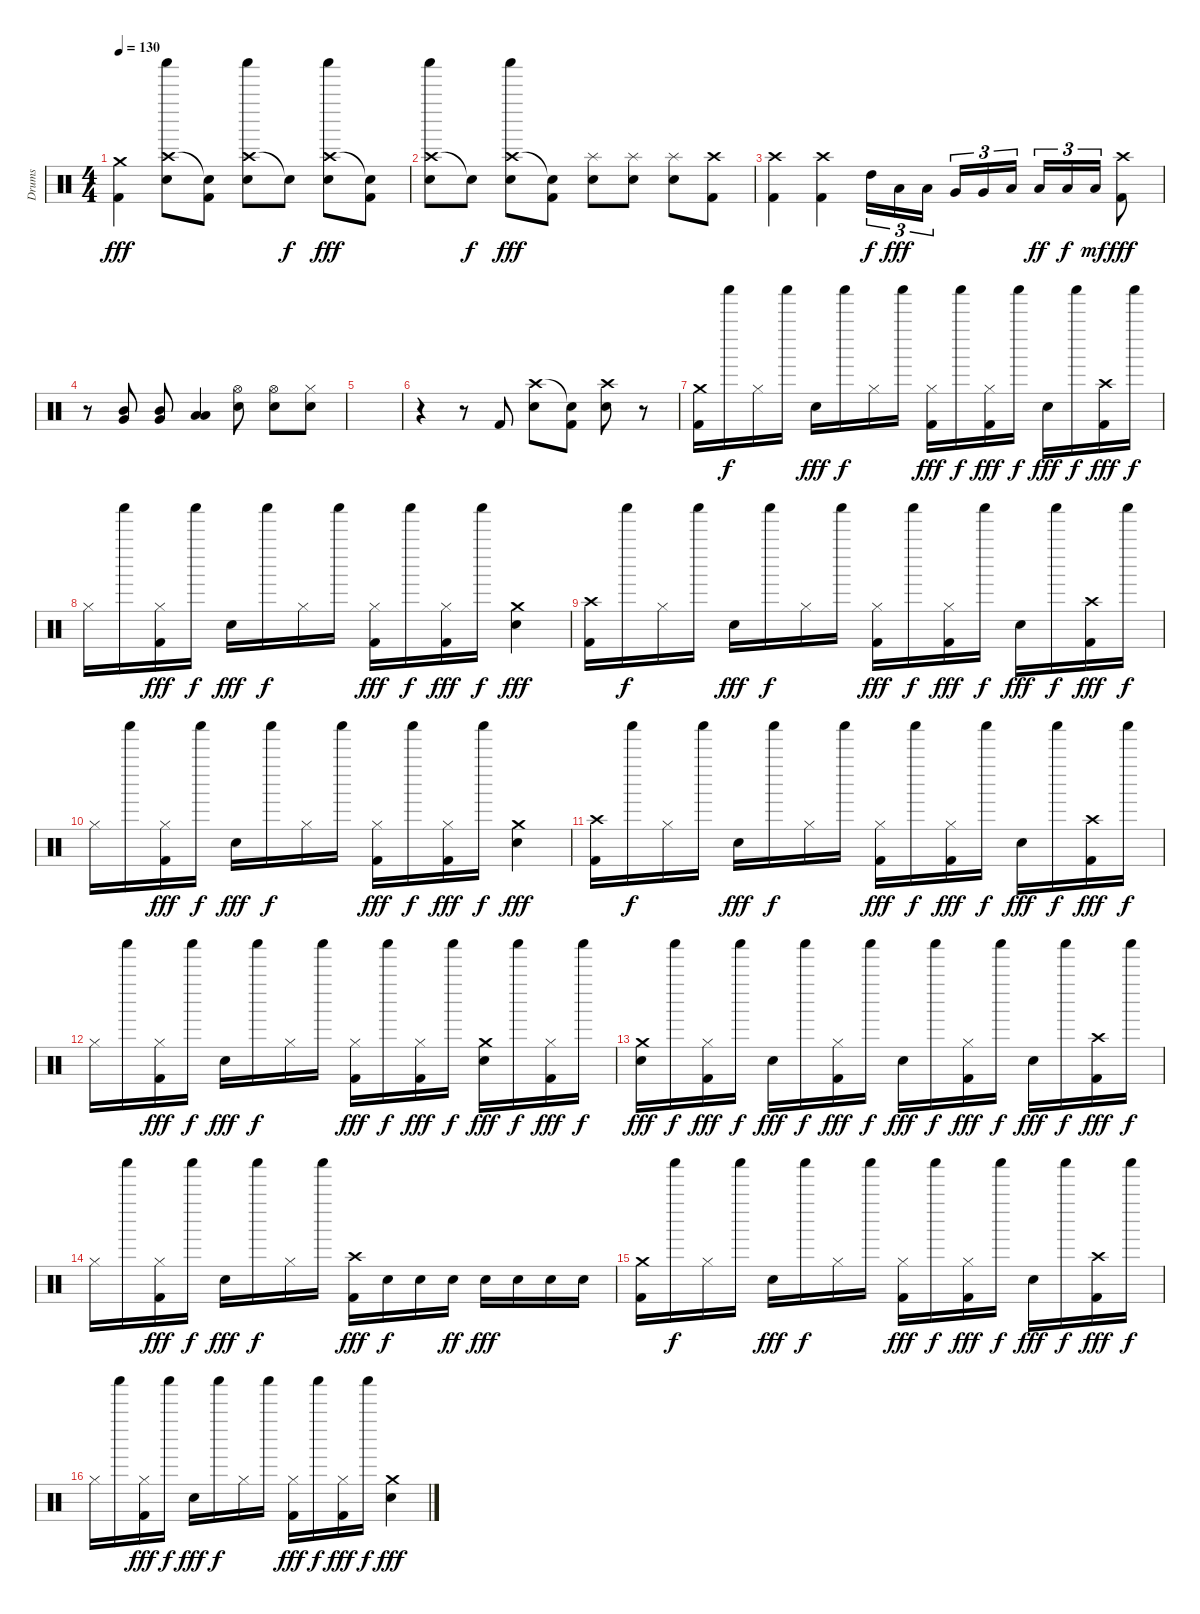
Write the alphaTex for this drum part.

\track ("Drums" "Drums") {instrument percussion}
\staff {score}
\articulation defaults
\ts (4 4)
\tempo 130
\clef neutral
\ks c
("Crash medium (hit)" "Kick (hit) 2").4{dy fff} ("Crash high (hit)" "Shaker (hit)" "Snare (hit) 2").8 ("Snare (hit)"{t} "Kick (hit) 2").8 ("Crash high (hit)" "Shaker (hit)" "Snare (hit) 2").8 "Snare (hit)"{t}.8{dy f} ("Crash high (hit)" "Shaker (hit)" "Snare (hit) 2").8{dy fff} ("Snare (hit)"{t} "Kick (hit) 2").8 |
("Crash high (hit)" "Shaker (hit)" "Snare (hit) 2").8 "Snare (hit)"{t}.8{dy f} ("Crash high (hit)" "Shaker (hit)" "Snare (hit) 2").8{dy fff} ("Snare (hit)"{t} "Kick (hit) 2").8 ("Splash (hit)" "Snare (hit) 2").8 ("Splash (hit)" "Snare (hit) 2").8 ("Splash (hit)" "Snare (hit) 2").8 ("Crash high (hit)" "Kick (hit) 2").8 |
("Crash high (hit)" "Kick (hit) 2").4 ("Crash high (hit)" "Kick (hit) 2").4 "High Tom (hit)".16{tu (3 2) dy f} "Low Tom (hit)".16{tu (3 2) dy fff} "Low Tom (hit)".16{tu (3 2) beam splitsecondary} "Very Low Tom (hit)".16{tu (3 2)} "Very Low Tom (hit)".16{tu (3 2)} "Low Floor Tom (hit)".16{tu (3 2)} "Low Floor Tom (hit)".16{tu (3 2) dy ff} "Low Floor Tom (hit)".16{tu (3 2) dy f} "Low Floor Tom (hit)".16{tu (3 2) dy mf} ("Crash high (hit)" "Kick (hit) 2").8{dy fff} |
r.8 ("Mid Tom (hit)" "Very Low Tom (hit)").8 ("Mid Tom (hit)" "Very Low Tom (hit)").8 ("Low Tom (hit)" "Low Floor Tom (hit)").4 ("Hi-Hat (open)" "Snare (hit) 2").8 ("Hi-Hat (open)" "Snare (hit) 2").8 ("Hi-Hat (closed)" "Snare (hit) 2").8 |
|
r.4 r.8 "Kick (hit) 2".8 ("Crash high (hit)" "Snare (hit) 2").8 ("Snare (hit)"{t} "Kick (hit) 2").8 ("Crash high (hit)" "Snare (hit) 2").8 r.8 |
("Crash medium (hit)" "Kick (hit) 2").16 "Shaker (hit)".16{dy f} "Hi-Hat (closed)".16 "Shaker (hit)".16 "Snare (hit) 2".16{dy fff} "Shaker (hit)".16{dy f} "Hi-Hat (closed)".16 "Shaker (hit)".16 ("Hi-Hat (closed)" "Kick (hit) 2").16{dy fff} "Shaker (hit)".16{dy f} ("Hi-Hat (closed)" "Kick (hit) 2").16{dy fff} "Shaker (hit)".16{dy f} "Snare (hit) 2".16{dy fff} "Shaker (hit)".16{dy f} ("Crash high (hit)" "Kick (hit) 2").16{dy fff} "Shaker (hit)".16{dy f} |
"Hi-Hat (closed)".16 "Shaker (hit)".16 ("Hi-Hat (closed)" "Kick (hit) 2").16{dy fff} "Shaker (hit)".16{dy f} "Snare (hit) 2".16{dy fff} "Shaker (hit)".16{dy f} "Hi-Hat (closed)".16 "Shaker (hit)".16 ("Hi-Hat (closed)" "Kick (hit) 2").16{dy fff} "Shaker (hit)".16{dy f} ("Hi-Hat (closed)" "Kick (hit) 2").16{dy fff} "Shaker (hit)".16{dy f} ("Crash medium (hit)" "Snare (hit) 2").4{dy fff} |
("Crash high (hit)" "Kick (hit) 2").16 "Shaker (hit)".16{dy f} "Hi-Hat (closed)".16 "Shaker (hit)".16 "Snare (hit) 2".16{dy fff} "Shaker (hit)".16{dy f} "Hi-Hat (closed)".16 "Shaker (hit)".16 ("Hi-Hat (closed)" "Kick (hit) 2").16{dy fff} "Shaker (hit)".16{dy f} ("Hi-Hat (closed)" "Kick (hit) 2").16{dy fff} "Shaker (hit)".16{dy f} "Snare (hit) 2".16{dy fff} "Shaker (hit)".16{dy f} ("Crash high (hit)" "Kick (hit) 2").16{dy fff} "Shaker (hit)".16{dy f} |
"Hi-Hat (closed)".16 "Shaker (hit)".16 ("Hi-Hat (closed)" "Kick (hit) 2").16{dy fff} "Shaker (hit)".16{dy f} "Snare (hit) 2".16{dy fff} "Shaker (hit)".16{dy f} "Hi-Hat (closed)".16 "Shaker (hit)".16 ("Hi-Hat (closed)" "Kick (hit) 2").16{dy fff} "Shaker (hit)".16{dy f} ("Hi-Hat (closed)" "Kick (hit) 2").16{dy fff} "Shaker (hit)".16{dy f} ("Crash medium (hit)" "Snare (hit) 2").4{dy fff} |
("Crash high (hit)" "Kick (hit) 2").16 "Shaker (hit)".16{dy f} "Hi-Hat (closed)".16 "Shaker (hit)".16 "Snare (hit) 2".16{dy fff} "Shaker (hit)".16{dy f} "Hi-Hat (closed)".16 "Shaker (hit)".16 ("Hi-Hat (closed)" "Kick (hit) 2").16{dy fff} "Shaker (hit)".16{dy f} ("Hi-Hat (closed)" "Kick (hit) 2").16{dy fff} "Shaker (hit)".16{dy f} "Snare (hit) 2".16{dy fff} "Shaker (hit)".16{dy f} ("Crash high (hit)" "Kick (hit) 2").16{dy fff} "Shaker (hit)".16{dy f} |
"Hi-Hat (closed)".16 "Shaker (hit)".16 ("Hi-Hat (closed)" "Kick (hit) 2").16{dy fff} "Shaker (hit)".16{dy f} "Snare (hit) 2".16{dy fff} "Shaker (hit)".16{dy f} "Hi-Hat (closed)".16 "Shaker (hit)".16 ("Hi-Hat (closed)" "Kick (hit) 2").16{dy fff} "Shaker (hit)".16{dy f} ("Hi-Hat (closed)" "Kick (hit) 2").16{dy fff} "Shaker (hit)".16{dy f} ("Crash medium (hit)" "Snare (hit) 2").16{dy fff} "Shaker (hit)".16{dy f} ("Hi-Hat (closed)" "Kick (hit) 2").16{dy fff} "Shaker (hit)".16{dy f} |
("Crash medium (hit)" "Snare (hit) 2").16{dy fff} "Shaker (hit)".16{dy f} ("Hi-Hat (closed)" "Kick (hit) 2").16{dy fff} "Shaker (hit)".16{dy f} "Snare (hit) 2".16{dy fff} "Shaker (hit)".16{dy f} ("Hi-Hat (closed)" "Kick (hit) 2").16{dy fff} "Shaker (hit)".16{dy f} "Snare (hit) 2".16{dy fff} "Shaker (hit)".16{dy f} ("Hi-Hat (closed)" "Kick (hit) 2").16{dy fff} "Shaker (hit)".16{dy f} "Snare (hit) 2".16{dy fff} "Shaker (hit)".16{dy f} ("Crash high (hit)" "Kick (hit) 2").16{dy fff} "Shaker (hit)".16{dy f} |
"Hi-Hat (closed)".16 "Shaker (hit)".16 ("Hi-Hat (closed)" "Kick (hit) 2").16{dy fff} "Shaker (hit)".16{dy f} "Snare (hit) 2".16{dy fff} "Shaker (hit)".16{dy f} "Hi-Hat (closed)".16 "Shaker (hit)".16 ("Crash high (hit)" "Kick (hit) 2").16{dy fff} "Snare (hit) 2".16{dy f} "Snare (hit) 2".16 "Snare (hit) 2".16{dy ff} "Snare (hit) 2".16{dy fff} "Snare (hit) 2".16 "Snare (hit) 2".16 "Snare (hit) 2".16 |
("Crash medium (hit)" "Kick (hit) 2").16 "Shaker (hit)".16{dy f} "Hi-Hat (closed)".16 "Shaker (hit)".16 "Snare (hit) 2".16{dy fff} "Shaker (hit)".16{dy f} "Hi-Hat (closed)".16 "Shaker (hit)".16 ("Hi-Hat (closed)" "Kick (hit) 2").16{dy fff} "Shaker (hit)".16{dy f} ("Hi-Hat (closed)" "Kick (hit) 2").16{dy fff} "Shaker (hit)".16{dy f} "Snare (hit) 2".16{dy fff} "Shaker (hit)".16{dy f} ("Crash high (hit)" "Kick (hit) 2").16{dy fff} "Shaker (hit)".16{dy f} |
"Hi-Hat (closed)".16 "Shaker (hit)".16 ("Hi-Hat (closed)" "Kick (hit) 2").16{dy fff} "Shaker (hit)".16{dy f} "Snare (hit) 2".16{dy fff} "Shaker (hit)".16{dy f} "Hi-Hat (closed)".16 "Shaker (hit)".16 ("Hi-Hat (closed)" "Kick (hit) 2").16{dy fff} "Shaker (hit)".16{dy f} ("Hi-Hat (closed)" "Kick (hit) 2").16{dy fff} "Shaker (hit)".16{dy f} ("Crash medium (hit)" "Snare (hit) 2").4{dy fff}
